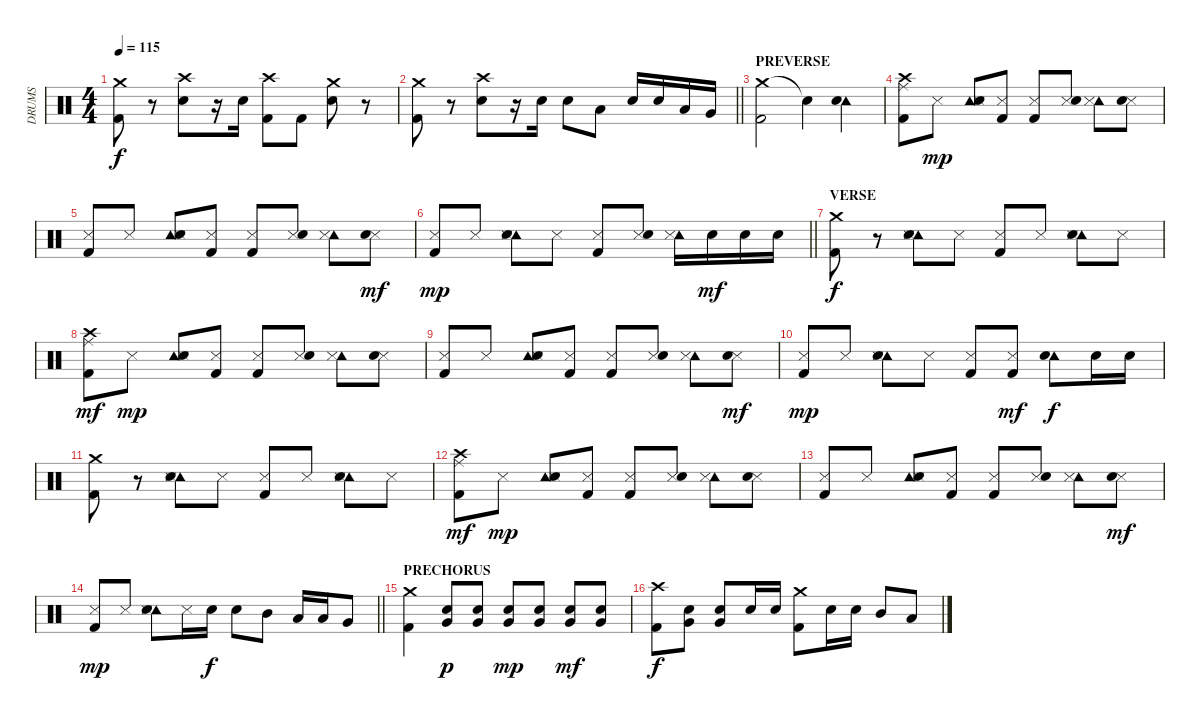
\track ("DRUMS" "DRUMS") {instrument percussion}
\staff {score}
\articulation defaults
\ts (4 4)
\tempo 115
\clef neutral
\ks c
("Crash medium (hit)" "Kick (hit) 2").8{dy f} r.8 ("Crash high (hit)" "Electric Snare (hit)").8 r.16 "Electric Snare (hit)".16 ("Crash high (hit)" "Kick (hit) 2").8 "Kick (hit) 2".8 ("Crash medium (hit)" "Electric Snare (hit)").8 r.8 |
\barLineRight lightlight
("Crash medium (hit)" "Kick (hit) 2").8 r.8 ("Crash high (hit)" "Electric Snare (hit)").8 r.16 "Electric Snare (hit)".16 "Electric Snare (hit)".8 "Low Tom (hit)".8 "Electric Snare (hit)".16 "Electric Snare (hit)".16 "Low Tom (hit)".16 "Very Low Tom (hit)".16 |
\section ("" "PREVERSE")
("Crash medium (hit)" "Kick (hit) 2").2 "Snare (hit)"{t}.4 ("Tambourine (hit)" "Electric Snare (hit)").4 |
("Crash high (hit)" "Ride (middle)" "Kick (hit) 2").8 "Snare (side stick) 3".8{dy mp} ("Tambourine (hit)" "Snare (side stick) 3" "Electric Snare (hit)").8 ("Snare (side stick) 3" "Kick (hit) 2").8 ("Snare (side stick) 3" "Kick (hit) 2").8 ("Snare (side stick) 3" "Electric Snare (hit)").8 ("Tambourine (hit)" "Snare (side stick) 3").8 ("Snare (side stick) 3" "Electric Snare (hit)").8 |
("Snare (side stick) 3" "Kick (hit) 2").8 "Snare (side stick) 3".8 ("Tambourine (hit)" "Snare (side stick) 3" "Electric Snare (hit)").8 ("Snare (side stick) 3" "Kick (hit) 2").8 ("Snare (side stick) 3" "Kick (hit) 2").8 ("Snare (side stick) 3" "Electric Snare (hit)").8 ("Tambourine (hit)" "Snare (side stick) 3").8 ("Snare (side stick) 3" "Electric Snare (hit)").8{dy mf} |
\barLineRight lightlight
("Snare (side stick) 3" "Kick (hit) 2").8{dy mp} "Snare (side stick) 3".8 ("Tambourine (hit)" "Snare (side stick) 3" "Electric Snare (hit)").8 "Snare (side stick) 3".8 ("Snare (side stick) 3" "Kick (hit) 2").8 ("Snare (side stick) 3" "Electric Snare (hit)").8 ("Tambourine (hit)" "Snare (side stick) 3").16 "Electric Snare (hit)".16{dy mf} "Electric Snare (hit)".16 "Electric Snare (hit)".16 |
\section ("" "VERSE")
("Crash medium (hit)" "Kick (hit) 2").8{dy f} r.8 ("Tambourine (hit)" "Snare (side stick) 3" "Electric Snare (hit)").8 "Snare (side stick) 3".8 ("Snare (side stick) 3" "Kick (hit) 2").8 "Snare (side stick) 3".8 ("Tambourine (hit)" "Snare (side stick) 3" "Electric Snare (hit)").8 "Snare (side stick) 3".8 |
("Crash high (hit)" "Ride (middle)" "Kick (hit) 2").8{dy mf} "Snare (side stick) 3".8{dy mp} ("Tambourine (hit)" "Snare (side stick) 3" "Electric Snare (hit)").8 ("Snare (side stick) 3" "Kick (hit) 2").8 ("Snare (side stick) 3" "Kick (hit) 2").8 ("Snare (side stick) 3" "Electric Snare (hit)").8 ("Tambourine (hit)" "Snare (side stick) 3").8 ("Snare (side stick) 3" "Electric Snare (hit)").8 |
("Snare (side stick) 3" "Kick (hit) 2").8 "Snare (side stick) 3".8 ("Tambourine (hit)" "Snare (side stick) 3" "Electric Snare (hit)").8 ("Snare (side stick) 3" "Kick (hit) 2").8 ("Snare (side stick) 3" "Kick (hit) 2").8 ("Snare (side stick) 3" "Electric Snare (hit)").8 ("Tambourine (hit)" "Snare (side stick) 3").8 ("Snare (side stick) 3" "Electric Snare (hit)").8{dy mf} |
("Snare (side stick) 3" "Kick (hit) 2").8{dy mp} "Snare (side stick) 3".8 ("Tambourine (hit)" "Snare (side stick) 3" "Electric Snare (hit)").8 "Snare (side stick) 3".8 ("Snare (side stick) 3" "Kick (hit) 2").8 ("Snare (side stick) 3" "Kick (hit) 2").8{dy mf} ("Tambourine (hit)" "Electric Snare (hit)").8{dy f} "Electric Snare (hit)".16 "Electric Snare (hit)".16 |
("Crash medium (hit)" "Kick (hit) 2").8 r.8 ("Tambourine (hit)" "Snare (side stick) 3" "Electric Snare (hit)").8 "Snare (side stick) 3".8 ("Snare (side stick) 3" "Kick (hit) 2").8 "Snare (side stick) 3".8 ("Tambourine (hit)" "Snare (side stick) 3" "Electric Snare (hit)").8 "Snare (side stick) 3".8 |
("Crash high (hit)" "Ride (middle)" "Kick (hit) 2").8{dy mf} "Snare (side stick) 3".8{dy mp} ("Tambourine (hit)" "Snare (side stick) 3" "Electric Snare (hit)").8 ("Snare (side stick) 3" "Kick (hit) 2").8 ("Snare (side stick) 3" "Kick (hit) 2").8 ("Snare (side stick) 3" "Electric Snare (hit)").8 ("Tambourine (hit)" "Snare (side stick) 3").8 ("Snare (side stick) 3" "Electric Snare (hit)").8 |
("Snare (side stick) 3" "Kick (hit) 2").8 "Snare (side stick) 3".8 ("Tambourine (hit)" "Snare (side stick) 3" "Electric Snare (hit)").8 ("Snare (side stick) 3" "Kick (hit) 2").8 ("Snare (side stick) 3" "Kick (hit) 2").8 ("Snare (side stick) 3" "Electric Snare (hit)").8 ("Tambourine (hit)" "Snare (side stick) 3").8 ("Snare (side stick) 3" "Electric Snare (hit)").8{dy mf} |
\barLineRight lightlight
("Snare (side stick) 3" "Kick (hit) 2").8{dy mp} "Snare (side stick) 3".8 ("Tambourine (hit)" "Snare (side stick) 3" "Electric Snare (hit)").8 "Snare (side stick) 3".16 "Electric Snare (hit)".16{dy f} "Electric Snare (hit)".8 "Mid Tom (hit)".8 "Low Tom (hit)".16 "Low Tom (hit)".16 "Very Low Tom (hit)".8 |
\section ("" "PRECHORUS")
("Crash medium (hit)" "Kick (hit) 2").4 ("Electric Snare (hit)" "Very Low Tom (hit)").8{dy p} ("Electric Snare (hit)" "Very Low Tom (hit)").8 ("Electric Snare (hit)" "Very Low Tom (hit)").8{dy mp} ("Electric Snare (hit)" "Very Low Tom (hit)").8 ("Electric Snare (hit)" "Very Low Tom (hit)").8{dy mf} ("Electric Snare (hit)" "Very Low Tom (hit)").8 |
("Crash high (hit)" "Kick (hit) 2").8{dy f} ("Very Low Tom (hit)" "Electric Snare (hit)").8 ("Very Low Tom (hit)" "Electric Snare (hit)").8 "Electric Snare (hit)".16 "Electric Snare (hit)".16 ("Crash medium (hit)" "Kick (hit) 2").8 "Electric Snare (hit)".16 "Electric Snare (hit)".16 "Mid Tom (hit)".8 "Low Tom (hit)".8
